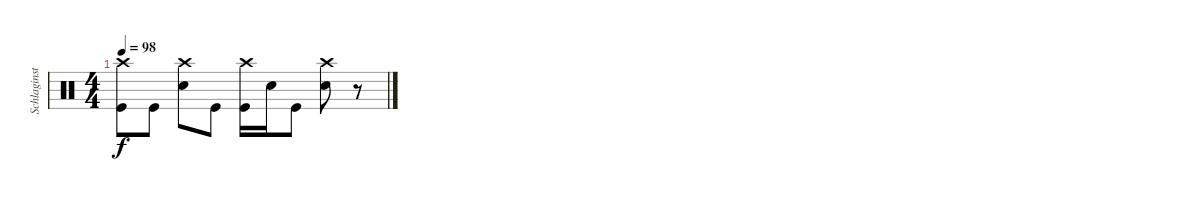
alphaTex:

\track ("Schlaginstrumente - Auswahl" "Schlaginst") {instrument percussion}
\staff {score}
\articulation defaults
\ts (4 4)
\tempo 98
\clef neutral
\ks c
("Crash high (hit)" "Kick (hit)").8{dy f} "Kick (hit)".8 ("Crash high (hit)" "Snare (hit) 2").8 "Kick (hit)".8 ("Crash high (hit)" "Kick (hit)").16 "Snare (hit) 2".16 "Kick (hit)".8 ("Crash high (hit)" "Snare (hit) 2").8 r.8
